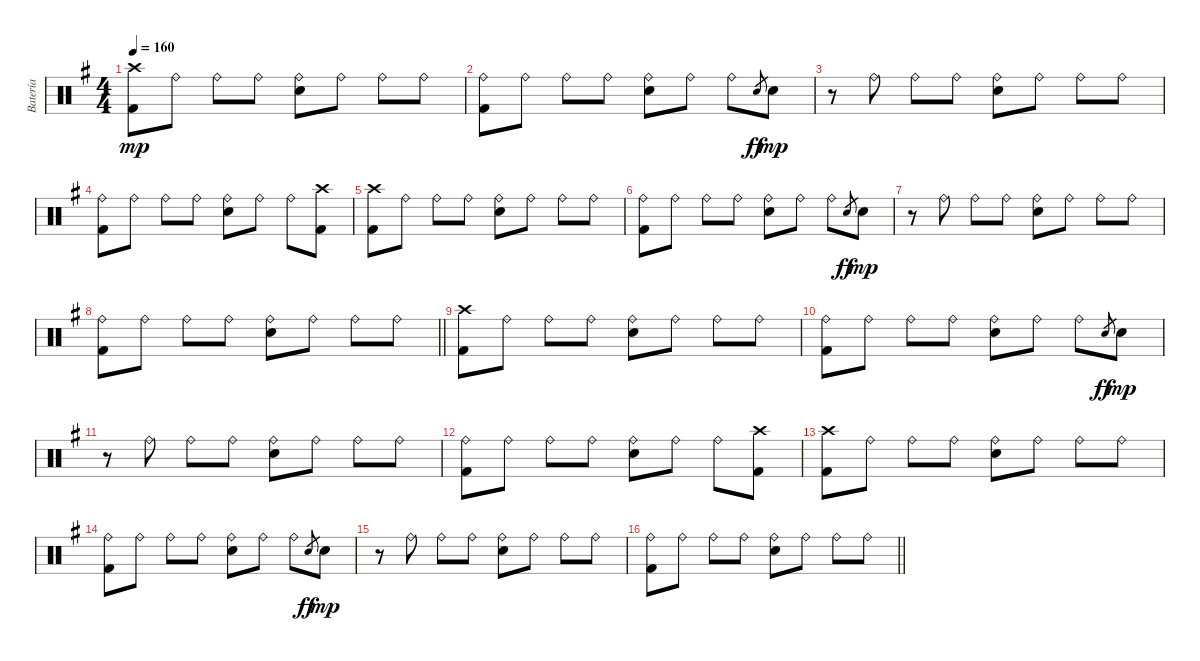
\track ("Batería" "Batería") {instrument percussion}
\staff {score}
\articulation defaults
\ts (4 4)
\section ("" "")
\tempo 160
\clef neutral
\ks g
("Crash high (hit)" "Kick (hit) 2").8{dy mp} "Ride (bell)".8 "Ride (bell)".8 "Ride (bell)".8 ("Ride (bell)" "Snare (hit) 2").8 "Ride (bell)".8 "Ride (bell)".8 "Ride (bell)".8 |
("Ride (bell)" "Kick (hit) 2").8 "Ride (bell)".8 "Ride (bell)".8 "Ride (bell)".8 ("Ride (bell)" "Snare (hit) 2").8 "Ride (bell)".8 "Ride (bell)".8 "Snare (hit) 2".8{gr dy ff} "Snare (hit) 2".8{dy mp} |
r.8 "Ride (bell)".8 "Ride (bell)".8 "Ride (bell)".8 ("Ride (bell)" "Snare (hit) 2").8 "Ride (bell)".8 "Ride (bell)".8 "Ride (bell)".8 |
("Ride (bell)" "Kick (hit) 2").8 "Ride (bell)".8 "Ride (bell)".8 "Ride (bell)".8 ("Ride (bell)" "Snare (hit) 2").8 "Ride (bell)".8 "Ride (bell)".8 ("Crash high (hit)" "Kick (hit) 2").8 |
("Crash high (hit)" "Kick (hit) 2").8 "Ride (bell)".8 "Ride (bell)".8 "Ride (bell)".8 ("Ride (bell)" "Snare (hit) 2").8 "Ride (bell)".8 "Ride (bell)".8 "Ride (bell)".8 |
("Ride (bell)" "Kick (hit) 2").8 "Ride (bell)".8 "Ride (bell)".8 "Ride (bell)".8 ("Ride (bell)" "Snare (hit) 2").8 "Ride (bell)".8 "Ride (bell)".8 "Snare (hit) 2".8{gr dy ff} "Snare (hit) 2".8{dy mp} |
r.8 "Ride (bell)".8 "Ride (bell)".8 "Ride (bell)".8 ("Ride (bell)" "Snare (hit) 2").8 "Ride (bell)".8 "Ride (bell)".8 "Ride (bell)".8 |
\barLineRight lightlight
("Ride (bell)" "Kick (hit) 2").8 "Ride (bell)".8 "Ride (bell)".8 "Ride (bell)".8 ("Ride (bell)" "Snare (hit) 2").8 "Ride (bell)".8 "Ride (bell)".8 "Ride (bell)".8 |
("Crash high (hit)" "Kick (hit) 2").8 "Ride (bell)".8 "Ride (bell)".8 "Ride (bell)".8 ("Ride (bell)" "Snare (hit) 2").8 "Ride (bell)".8 "Ride (bell)".8 "Ride (bell)".8 |
("Ride (bell)" "Kick (hit) 2").8 "Ride (bell)".8 "Ride (bell)".8 "Ride (bell)".8 ("Ride (bell)" "Snare (hit) 2").8 "Ride (bell)".8 "Ride (bell)".8 "Snare (hit) 2".8{gr dy ff} "Snare (hit) 2".8{dy mp} |
r.8 "Ride (bell)".8 "Ride (bell)".8 "Ride (bell)".8 ("Ride (bell)" "Snare (hit) 2").8 "Ride (bell)".8 "Ride (bell)".8 "Ride (bell)".8 |
("Ride (bell)" "Kick (hit) 2").8 "Ride (bell)".8 "Ride (bell)".8 "Ride (bell)".8 ("Ride (bell)" "Snare (hit) 2").8 "Ride (bell)".8 "Ride (bell)".8 ("Crash high (hit)" "Kick (hit) 2").8 |
("Crash high (hit)" "Kick (hit) 2").8 "Ride (bell)".8 "Ride (bell)".8 "Ride (bell)".8 ("Ride (bell)" "Snare (hit) 2").8 "Ride (bell)".8 "Ride (bell)".8 "Ride (bell)".8 |
("Ride (bell)" "Kick (hit) 2").8 "Ride (bell)".8 "Ride (bell)".8 "Ride (bell)".8 ("Ride (bell)" "Snare (hit) 2").8 "Ride (bell)".8 "Ride (bell)".8 "Snare (hit) 2".8{gr dy ff} "Snare (hit) 2".8{dy mp} |
r.8 "Ride (bell)".8 "Ride (bell)".8 "Ride (bell)".8 ("Ride (bell)" "Snare (hit) 2").8 "Ride (bell)".8 "Ride (bell)".8 "Ride (bell)".8 |
\barLineRight lightlight
("Ride (bell)" "Kick (hit) 2").8 "Ride (bell)".8 "Ride (bell)".8 "Ride (bell)".8 ("Ride (bell)" "Snare (hit) 2").8 "Ride (bell)".8 "Ride (bell)".8 "Ride (bell)".8
